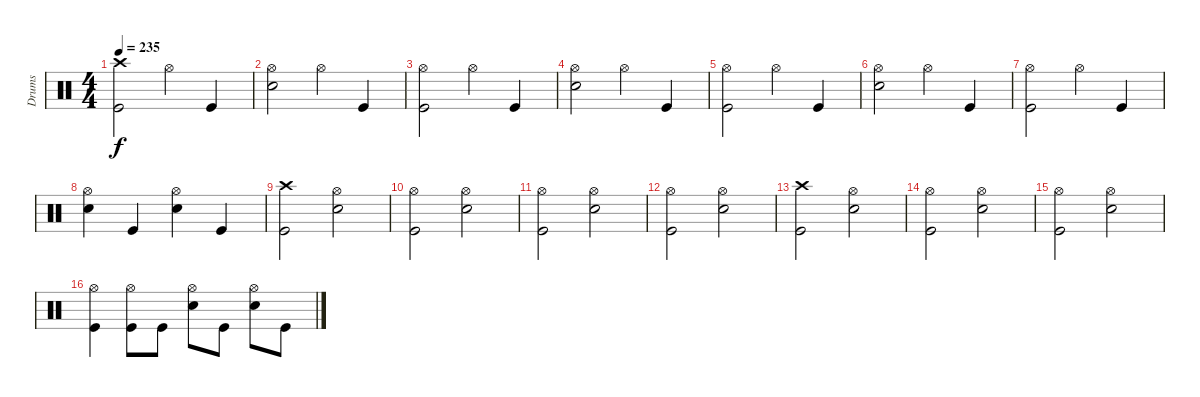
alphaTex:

\track ("Drums" "Drums") {instrument percussion}
\staff {score}
\articulation defaults
\ts (4 4)
\tempo 235
\clef neutral
\ks c
("Crash high (hit)" "Kick (hit)").2{dy f} "Hi-Hat (open)".4 "Kick (hit)".4 |
("Hi-Hat (open)" "Snare (hit) 2").2 "Hi-Hat (open)".4 "Kick (hit)".4 |
("Hi-Hat (open)" "Kick (hit)").2 "Hi-Hat (open)".4 "Kick (hit)".4 |
("Hi-Hat (open)" "Snare (hit) 2").2 "Hi-Hat (open)".4 "Kick (hit)".4 |
("Hi-Hat (open)" "Kick (hit)").2 "Hi-Hat (open)".4 "Kick (hit)".4 |
("Hi-Hat (open)" "Snare (hit) 2").2 "Hi-Hat (open)".4 "Kick (hit)".4 |
("Hi-Hat (open)" "Kick (hit)").2 "Hi-Hat (open)".4 "Kick (hit)".4 |
("Hi-Hat (open)" "Snare (hit) 2").4 "Kick (hit)".4 ("Hi-Hat (open)" "Snare (hit) 2").4 "Kick (hit)".4 |
("Crash high (hit)" "Kick (hit)").2 ("Hi-Hat (open)" "Snare (hit) 2").2 |
("Hi-Hat (open)" "Kick (hit)").2 ("Hi-Hat (open)" "Snare (hit) 2").2 |
("Hi-Hat (open)" "Kick (hit)").2 ("Hi-Hat (open)" "Snare (hit) 2").2 |
("Hi-Hat (open)" "Kick (hit)").2 ("Hi-Hat (open)" "Snare (hit) 2").2 |
("Crash high (hit)" "Kick (hit)").2 ("Hi-Hat (open)" "Snare (hit) 2").2 |
("Hi-Hat (open)" "Kick (hit)").2 ("Hi-Hat (open)" "Snare (hit) 2").2 |
("Hi-Hat (open)" "Kick (hit)").2 ("Hi-Hat (open)" "Snare (hit) 2").2 |
("Hi-Hat (open)" "Kick (hit)").4 ("Hi-Hat (open)" "Kick (hit)").8 "Kick (hit)".8 ("Hi-Hat (open)" "Snare (hit) 2").8 "Kick (hit)".8 ("Hi-Hat (open)" "Snare (hit) 2").8 "Kick (hit)".8
